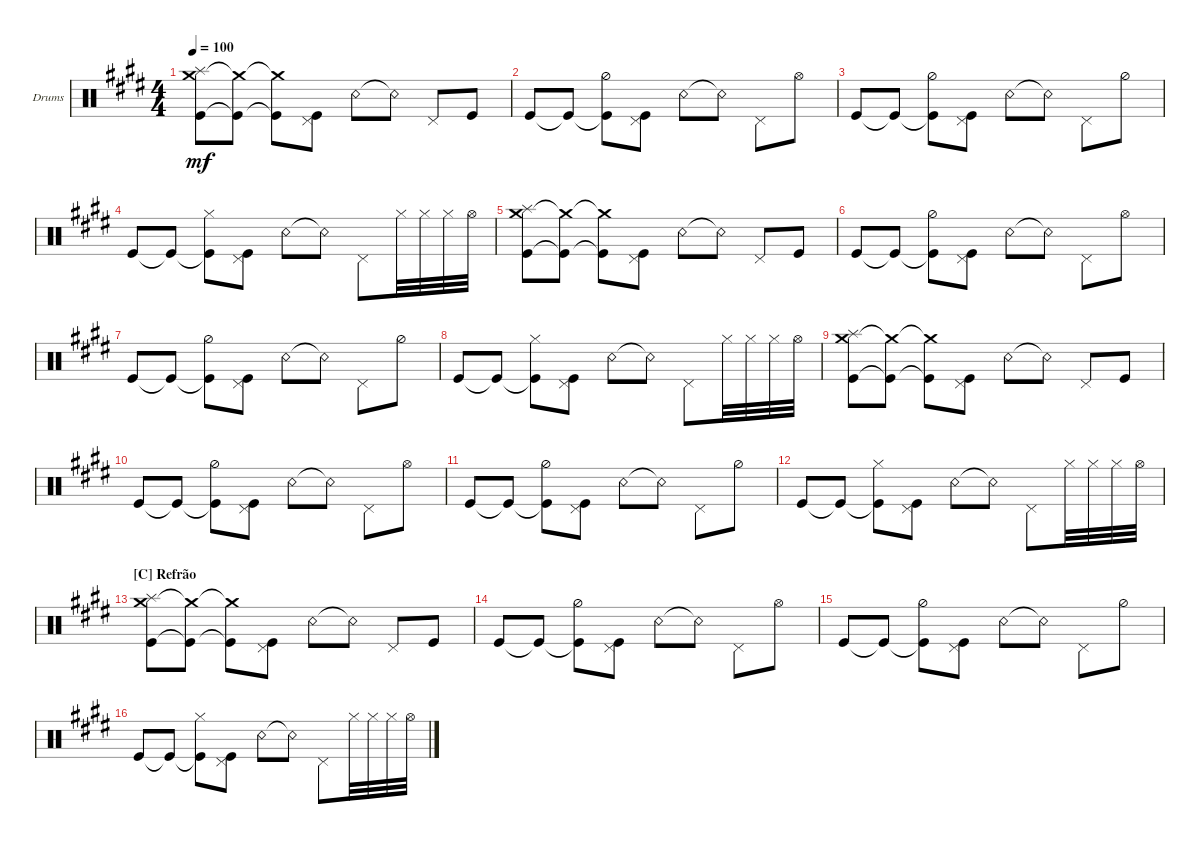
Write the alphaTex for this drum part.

\defaultSystemsLayout 4
\bracketExtendMode groupsimilarinstruments
\firstSystemTrackNameOrientation horizontal
\otherSystemsTrackNameOrientation horizontal
\track ("Drumkit" "Drums") {multiBarRest instrument percussion}
\staff {score}
\articulation defaults
\ts (4 4)
\tempo 100
\clef neutral
\ks e
("Kick (hit)" "Crash medium (hit)" "Splash (hit)").8{dy mf} ("Kick (hit)"{t} "Crash medium (hit)"{t}).8 ("Kick (hit)"{t} "Crash medium (hit)"{t}).8 ("Kick (hit)" "Pedal Hi-Hat (hit)").8 "Snare (rim shot)".8 "Snare (rim shot)"{t}.8 "Pedal Hi-Hat (hit)".8 "Kick (hit)".8 |
"Kick (hit)".8 "Kick (hit)"{t}.8 ("Kick (hit)"{t} "Hi-Hat (half)").8 ("Kick (hit)" "Pedal Hi-Hat (hit)").8 "Snare (rim shot)".8 "Snare (rim shot)"{t}.8 "Pedal Hi-Hat (hit)".8 "Hi-Hat (open)".8 |
"Kick (hit)".8 "Kick (hit)"{t}.8 ("Kick (hit)"{t} "Hi-Hat (half)").8 ("Kick (hit)" "Pedal Hi-Hat (hit)").8 "Snare (rim shot)".8 "Snare (rim shot)"{t}.8 "Pedal Hi-Hat (hit)".8 "Hi-Hat (half)".8 |
"Kick (hit)".8 "Kick (hit)"{t}.8 ("Kick (hit)"{t} "Hi-Hat (closed)").8 ("Kick (hit)" "Pedal Hi-Hat (hit)").8 "Snare (rim shot)".8 "Snare (rim shot)"{t}.8 "Pedal Hi-Hat (hit)".8 "Hi-Hat (closed)".32 "Hi-Hat (closed)".32 "Hi-Hat (closed)".32 "Hi-Hat (open)".32 |
("Kick (hit)" "Crash medium (hit)" "Splash (hit)").8 ("Kick (hit)"{t} "Crash medium (hit)"{t}).8 ("Kick (hit)"{t} "Crash medium (hit)"{t}).8 ("Kick (hit)" "Pedal Hi-Hat (hit)").8 "Snare (rim shot)".8 "Snare (rim shot)"{t}.8 "Pedal Hi-Hat (hit)".8 "Kick (hit)".8 |
"Kick (hit)".8 "Kick (hit)"{t}.8 ("Kick (hit)"{t} "Hi-Hat (half)").8 ("Kick (hit)" "Pedal Hi-Hat (hit)").8 "Snare (rim shot)".8 "Snare (rim shot)"{t}.8 "Pedal Hi-Hat (hit)".8 "Hi-Hat (open)".8 |
"Kick (hit)".8 "Kick (hit)"{t}.8 ("Kick (hit)"{t} "Hi-Hat (half)").8 ("Kick (hit)" "Pedal Hi-Hat (hit)").8 "Snare (rim shot)".8 "Snare (rim shot)"{t}.8 "Pedal Hi-Hat (hit)".8 "Hi-Hat (half)".8 |
"Kick (hit)".8 "Kick (hit)"{t}.8 ("Kick (hit)"{t} "Hi-Hat (closed)").8 ("Kick (hit)" "Pedal Hi-Hat (hit)").8 "Snare (rim shot)".8 "Snare (rim shot)"{t}.8 "Pedal Hi-Hat (hit)".8 "Hi-Hat (closed)".32 "Hi-Hat (closed)".32 "Hi-Hat (closed)".32 "Hi-Hat (open)".32 |
("Kick (hit)" "Crash medium (hit)" "Splash (hit)").8 ("Kick (hit)"{t} "Crash medium (hit)"{t}).8 ("Kick (hit)"{t} "Crash medium (hit)"{t}).8 ("Kick (hit)" "Pedal Hi-Hat (hit)").8 "Snare (rim shot)".8 "Snare (rim shot)"{t}.8 "Pedal Hi-Hat (hit)".8 "Kick (hit)".8 |
"Kick (hit)".8 "Kick (hit)"{t}.8 ("Kick (hit)"{t} "Hi-Hat (half)").8 ("Kick (hit)" "Pedal Hi-Hat (hit)").8 "Snare (rim shot)".8 "Snare (rim shot)"{t}.8 "Pedal Hi-Hat (hit)".8 "Hi-Hat (open)".8 |
"Kick (hit)".8 "Kick (hit)"{t}.8 ("Kick (hit)"{t} "Hi-Hat (half)").8 ("Kick (hit)" "Pedal Hi-Hat (hit)").8 "Snare (rim shot)".8 "Snare (rim shot)"{t}.8 "Pedal Hi-Hat (hit)".8 "Hi-Hat (half)".8 |
"Kick (hit)".8 "Kick (hit)"{t}.8 ("Kick (hit)"{t} "Hi-Hat (closed)").8 ("Kick (hit)" "Pedal Hi-Hat (hit)").8 "Snare (rim shot)".8 "Snare (rim shot)"{t}.8 "Pedal Hi-Hat (hit)".8 "Hi-Hat (closed)".32 "Hi-Hat (closed)".32 "Hi-Hat (closed)".32 "Hi-Hat (open)".32 |
\section ("C" "Refrão")
("Kick (hit)" "Crash medium (hit)" "Splash (hit)").8 ("Kick (hit)"{t} "Crash medium (hit)"{t}).8 ("Kick (hit)"{t} "Crash medium (hit)"{t}).8 ("Kick (hit)" "Pedal Hi-Hat (hit)").8 "Snare (rim shot)".8 "Snare (rim shot)"{t}.8 "Pedal Hi-Hat (hit)".8 "Kick (hit)".8 |
"Kick (hit)".8 "Kick (hit)"{t}.8 ("Kick (hit)"{t} "Hi-Hat (half)").8 ("Kick (hit)" "Pedal Hi-Hat (hit)").8 "Snare (rim shot)".8 "Snare (rim shot)"{t}.8 "Pedal Hi-Hat (hit)".8 "Hi-Hat (open)".8 |
"Kick (hit)".8 "Kick (hit)"{t}.8 ("Kick (hit)"{t} "Hi-Hat (half)").8 ("Kick (hit)" "Pedal Hi-Hat (hit)").8 "Snare (rim shot)".8 "Snare (rim shot)"{t}.8 "Pedal Hi-Hat (hit)".8 "Hi-Hat (half)".8 |
"Kick (hit)".8 "Kick (hit)"{t}.8 ("Kick (hit)"{t} "Hi-Hat (closed)").8 ("Kick (hit)" "Pedal Hi-Hat (hit)").8 "Snare (rim shot)".8 "Snare (rim shot)"{t}.8 "Pedal Hi-Hat (hit)".8 "Hi-Hat (closed)".32 "Hi-Hat (closed)".32 "Hi-Hat (closed)".32 "Hi-Hat (open)".32
